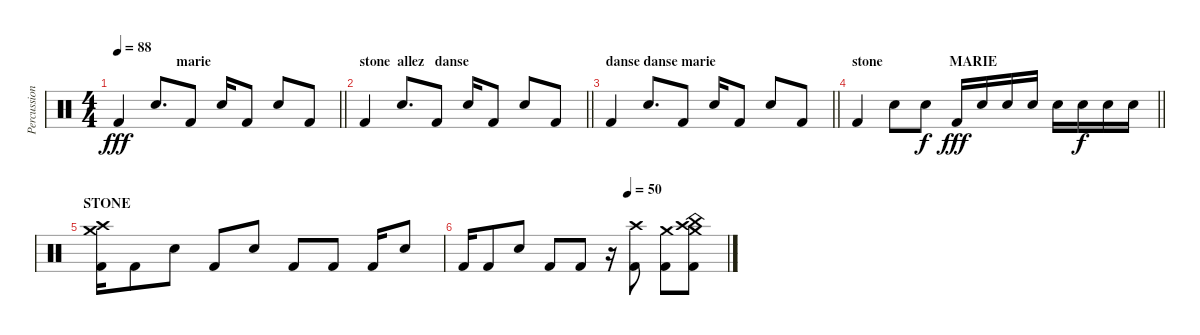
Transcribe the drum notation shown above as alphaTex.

\track ("Percussions" "Percussion") {instrument percussion}
\staff {score}
\articulation defaults
\ts (4 4)
\section ("" "                  marie ")
\tempo 88
\clef neutral
\barLineRight lightlight
\ks c "Kick (hit) 2".4{dy fff} "Snare (hit) 2".8{d} "Kick (hit) 2".8 "Snare (hit) 2".16 "Kick (hit) 2".8 "Snare (hit) 2".8 "Kick (hit) 2".8
|
\section ("" "stone  allez   danse")
\barLineRight lightlight "Kick (hit) 2".4 "Snare (hit) 2".8{d} "Kick (hit) 2".8 "Snare (hit) 2".16 "Kick (hit) 2".8 "Snare (hit) 2".8 "Kick (hit) 2".8
|
\section ("" "danse danse marie")
\barLineRight lightlight "Kick (hit) 2".4 "Snare (hit) 2".8{d} "Kick (hit) 2".8 "Snare (hit) 2".16 "Kick (hit) 2".8 "Snare (hit) 2".8 "Kick (hit) 2".8
|
\section ("" "stone                   MARIE")
\barLineRight lightlight "Kick (hit) 2".4 "Snare (hit) 2".8 "Snare (hit) 2".8{dy f} "Kick (hit) 2".16{dy fff} "Snare (hit) 2".16 "Snare (hit) 2".16 "Snare (hit) 2".16 "Snare (hit) 2".16 "Snare (hit) 2".16{dy f} "Snare (hit) 2".16 "Snare (hit) 2".16
|
\section ("" "STONE")
("Crash medium (hit)" "Crash high (hit)" "Kick (hit) 2").16 "Kick (hit) 2".8 "Snare (hit) 2".8 "Kick (hit) 2".8 "Snare (hit) 2".8 "Kick (hit) 2".8 "Kick (hit) 2".8 "Kick (hit) 2".16 "Snare (hit) 2".8 |
\tempo (50 0.625)
"Kick (hit) 2".16 "Kick (hit) 2".8 "Snare (hit) 2".8 "Kick (hit) 2".8 "Kick (hit) 2".8 r.16 ("Kick (hit) 2" "Crash high (hit)").8 ("Kick (hit) 2" "Crash medium (hit)").8 ("Crash medium (hit)" "Crash high (hit)" "Kick (hit) 2" "China (hit)").8
